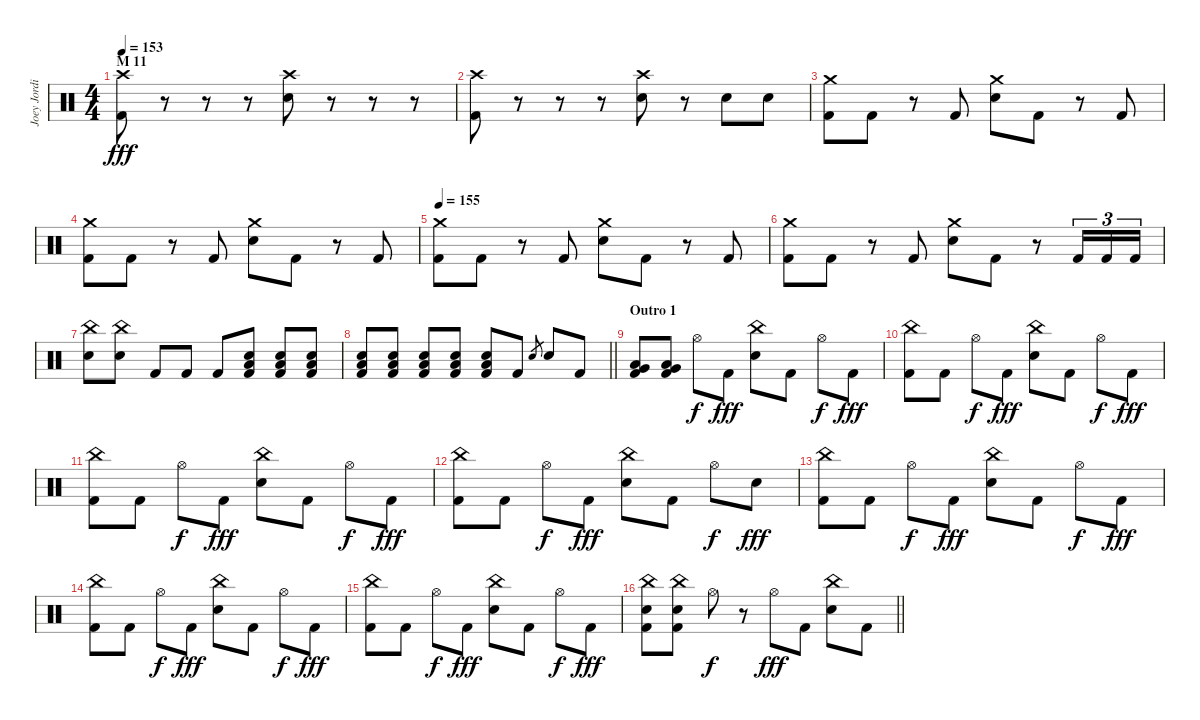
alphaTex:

\track ("Joey Jordison" "Joey Jordi") {instrument percussion}
\staff {score}
\articulation defaults
\ts (4 4)
\section ("" "M 11")
\tempo 153
\clef neutral
\ks c
("Crash high (hit)" "Kick (hit) 2").8{dy fff} r.8 r.8 r.8 ("Crash high (hit)" "Electric Snare (hit)").8 r.8 r.8 r.8 |
("Crash high (hit)" "Kick (hit) 2").8 r.8 r.8 r.8 ("Crash high (hit)" "Electric Snare (hit)").8 r.8 "Electric Snare (hit)".8 "Electric Snare (hit)".8 |
("Crash medium (hit)" "Kick (hit) 2").8 "Kick (hit) 2".8 r.8 "Kick (hit) 2".8 ("Crash medium (hit)" "Electric Snare (hit)").8 "Kick (hit) 2".8 r.8 "Kick (hit) 2".8 |
("Crash medium (hit)" "Kick (hit) 2").8 "Kick (hit) 2".8 r.8 "Kick (hit) 2".8 ("Crash medium (hit)" "Electric Snare (hit)").8 "Kick (hit) 2".8 r.8 "Kick (hit) 2".8 |
\tempo 155
("Crash medium (hit)" "Kick (hit) 2").8 "Kick (hit) 2".8 r.8 "Kick (hit) 2".8 ("Crash medium (hit)" "Electric Snare (hit)").8 "Kick (hit) 2".8 r.8 "Kick (hit) 2".8 |
("Crash medium (hit)" "Kick (hit) 2").8 "Kick (hit) 2".8 r.8 "Kick (hit) 2".8 ("Crash medium (hit)" "Electric Snare (hit)").8 "Kick (hit) 2".8 r.8 "Kick (hit) 2".16{tu (3 2)} "Kick (hit) 2".16{tu (3 2)} "Kick (hit) 2".16{tu (3 2)} |
("China (hit)" "Electric Snare (hit)").8 ("China (hit)" "Electric Snare (hit)").8 "Kick (hit) 2".8 "Kick (hit) 2".8 "Kick (hit) 2".8 ("Electric Snare (hit)" "Low Floor Tom (hit)" "Kick (hit) 2").8 ("Electric Snare (hit)" "Low Floor Tom (hit)" "Kick (hit) 2").8 ("Electric Snare (hit)" "Low Floor Tom (hit)" "Kick (hit) 2").8 |
\barLineRight lightlight
("Electric Snare (hit)" "Low Floor Tom (hit)" "Kick (hit) 2").8 ("Electric Snare (hit)" "Low Floor Tom (hit)" "Kick (hit) 2").8 ("Electric Snare (hit)" "Low Floor Tom (hit)" "Kick (hit) 2").8 ("Electric Snare (hit)" "Low Floor Tom (hit)" "Kick (hit) 2").8 ("Electric Snare (hit)" "Low Floor Tom (hit)" "Kick (hit) 2").8 "Kick (hit) 2".8 "Electric Snare (hit)".8{gr} "Electric Snare (hit)".8 "Kick (hit) 2".8 |
\section ("" "Outro 1")
("Very Low Tom (hit)" "Low Floor Tom (hit)" "Kick (hit) 2").8 ("Very Low Tom (hit)" "Low Floor Tom (hit)" "Kick (hit) 2").8 "Hi-Hat (open)".8{dy f} "Kick (hit) 2".8{dy fff} ("China (hit)" "Electric Snare (hit)").8 "Kick (hit) 2".8 "Hi-Hat (open)".8{dy f} "Kick (hit) 2".8{dy fff} |
("China (hit)" "Kick (hit) 2").8 "Kick (hit) 2".8 "Hi-Hat (open)".8{dy f} "Kick (hit) 2".8{dy fff} ("China (hit)" "Electric Snare (hit)").8 "Kick (hit) 2".8 "Hi-Hat (open)".8{dy f} "Kick (hit) 2".8{dy fff} |
("China (hit)" "Kick (hit) 2").8 "Kick (hit) 2".8 "Hi-Hat (open)".8{dy f} "Kick (hit) 2".8{dy fff} ("China (hit)" "Electric Snare (hit)").8 "Kick (hit) 2".8 "Hi-Hat (open)".8{dy f} "Kick (hit) 2".8{dy fff} |
("China (hit)" "Kick (hit) 2").8 "Kick (hit) 2".8 "Hi-Hat (open)".8{dy f} "Kick (hit) 2".8{dy fff} ("China (hit)" "Electric Snare (hit)").8 "Kick (hit) 2".8 "Hi-Hat (open)".8{dy f} "Electric Snare (hit)".8{dy fff} |
("China (hit)" "Kick (hit) 2").8 "Kick (hit) 2".8 "Hi-Hat (open)".8{dy f} "Kick (hit) 2".8{dy fff} ("China (hit)" "Electric Snare (hit)").8 "Kick (hit) 2".8 "Hi-Hat (open)".8{dy f} "Kick (hit) 2".8{dy fff} |
("China (hit)" "Kick (hit) 2").8 "Kick (hit) 2".8 "Hi-Hat (open)".8{dy f} "Kick (hit) 2".8{dy fff} ("China (hit)" "Electric Snare (hit)").8 "Kick (hit) 2".8 "Hi-Hat (open)".8{dy f} "Kick (hit) 2".8{dy fff} |
("China (hit)" "Kick (hit) 2").8 "Kick (hit) 2".8 "Hi-Hat (open)".8{dy f} "Kick (hit) 2".8{dy fff} ("China (hit)" "Electric Snare (hit)").8 "Kick (hit) 2".8 "Hi-Hat (open)".8{dy f} "Kick (hit) 2".8{dy fff} |
\barLineRight lightlight
("China (hit)" "Electric Snare (hit)" "Kick (hit) 2").8 ("China (hit)" "Electric Snare (hit)" "Kick (hit) 2").8 "Hi-Hat (open)".8{dy f} r.8 "Hi-Hat (open)".8{dy fff} "Kick (hit) 2".8 ("China (hit)" "Electric Snare (hit)").8 "Kick (hit) 2".8
